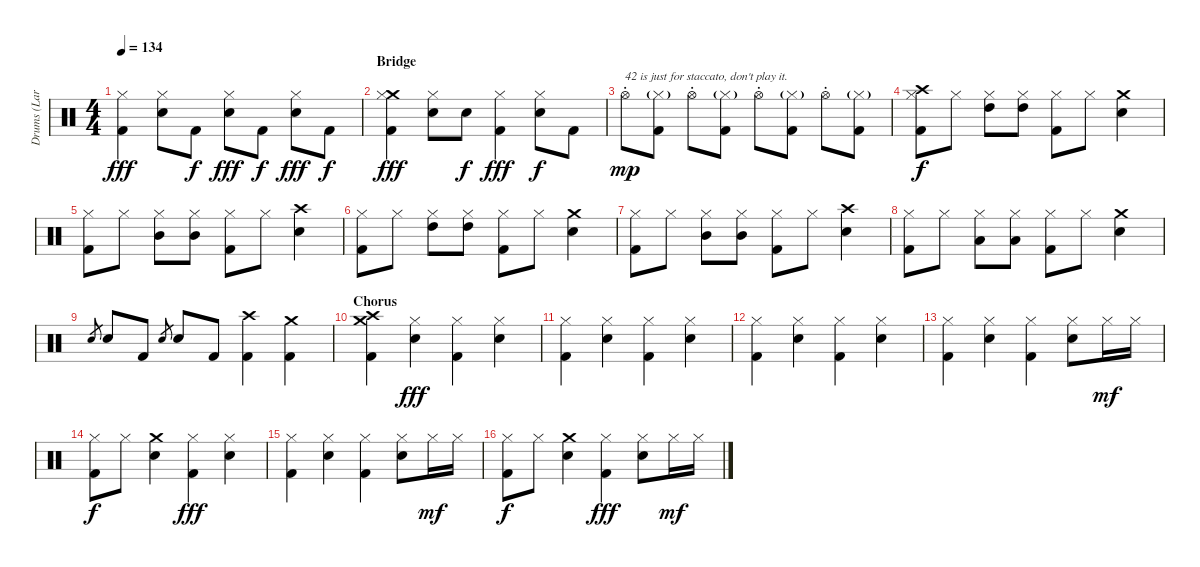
\track ("Drums (Lars)" "Drums (Lar") {instrument percussion}
\staff {score}
\articulation defaults
\ts (4 4)
\tempo 134
\clef neutral
\ks c
("Hi-Hat (closed)" "Kick (hit) 2").4{dy fff} ("Hi-Hat (closed)" "Snare (hit) 2").8 "Kick (hit) 2".8{dy f} ("Hi-Hat (closed)" "Snare (hit) 2").8{dy fff} "Kick (hit) 2".8{dy f} ("Hi-Hat (closed)" "Snare (hit) 2").8{dy fff} "Kick (hit) 2".8{dy f} |
\section ("" "Bridge")
("Crash medium (hit)" "Hi-Hat (closed)" "Kick (hit) 2").4{dy fff} ("Hi-Hat (closed)" "Snare (hit) 2").8 "Snare (hit) 2".8{dy f} ("Hi-Hat (closed)" "Kick (hit) 2").4{dy fff} ("Hi-Hat (closed)" "Snare (hit) 2").8{dy f} "Kick (hit) 2".8 |
"Hi-Hat (open)"{st}.8{txt "42 is just for staccato, don't play it." dy mp} ("Hi-Hat (closed)"{g} "Kick (hit) 2").8 "Hi-Hat (open)"{st}.8 ("Hi-Hat (closed)"{g} "Kick (hit) 2").8 "Hi-Hat (open)"{st}.8 ("Hi-Hat (closed)"{g} "Kick (hit) 2").8 "Hi-Hat (open)"{st}.8 ("Hi-Hat (closed)"{g} "Kick (hit) 2").8 |
("Crash high (hit)" "Hi-Hat (closed)" "Kick (hit) 2").8{dy f} "Hi-Hat (closed)".8 ("Hi-Hat (closed)" "High Tom (hit)").8 ("Hi-Hat (closed)" "High Tom (hit)").8 ("Hi-Hat (closed)" "Kick (hit) 2").8 "Hi-Hat (closed)".8 ("Crash medium (hit)" "Snare (hit) 2").4 |
("Hi-Hat (closed)" "Kick (hit) 2").8 "Hi-Hat (closed)".8 ("Hi-Hat (closed)" "Mid Tom (hit)").8 ("Hi-Hat (closed)" "Mid Tom (hit)").8 ("Hi-Hat (closed)" "Kick (hit) 2").8 "Hi-Hat (closed)".8 ("Crash high (hit)" "Snare (hit) 2").4 |
("Hi-Hat (closed)" "Kick (hit) 2").8 "Hi-Hat (closed)".8 ("Hi-Hat (closed)" "High Tom (hit)").8 ("Hi-Hat (closed)" "High Tom (hit)").8 ("Hi-Hat (closed)" "Kick (hit) 2").8 "Hi-Hat (closed)".8 ("Crash medium (hit)" "Snare (hit) 2").4 |
("Hi-Hat (closed)" "Kick (hit) 2").8 "Hi-Hat (closed)".8 ("Hi-Hat (closed)" "Mid Tom (hit)").8 ("Hi-Hat (closed)" "Mid Tom (hit)").8 ("Hi-Hat (closed)" "Kick (hit) 2").8 "Hi-Hat (closed)".8 ("Crash high (hit)" "Snare (hit) 2").4 |
("Hi-Hat (closed)" "Kick (hit) 2").8 "Hi-Hat (closed)".8 ("Hi-Hat (closed)" "Low Tom (hit)").8 ("Hi-Hat (closed)" "Low Tom (hit)").8 ("Hi-Hat (closed)" "Kick (hit) 2").8 "Hi-Hat (closed)".8 ("Crash medium (hit)" "Snare (hit) 2").4 |
"Snare (hit) 2".8{gr} "Snare (hit) 2".8 "Kick (hit) 2".8 "Snare (hit) 2".8{gr} "Snare (hit) 2".8 "Kick (hit) 2".8 ("Crash high (hit)" "Kick (hit) 2").4 ("Crash medium (hit)" "Kick (hit) 2").4 |
\section ("" "Chorus")
("Crash high (hit)" "Crash medium (hit)" "Kick (hit) 2").4 ("Hi-Hat (closed)" "Snare (hit) 2").4{dy fff} ("Hi-Hat (closed)" "Kick (hit) 2").4 ("Hi-Hat (closed)" "Snare (hit) 2").4 |
("Hi-Hat (closed)" "Kick (hit) 2").4 ("Hi-Hat (closed)" "Snare (hit) 2").4 ("Hi-Hat (closed)" "Kick (hit) 2").4 ("Hi-Hat (closed)" "Snare (hit) 2").4 |
("Hi-Hat (closed)" "Kick (hit) 2").4 ("Hi-Hat (closed)" "Snare (hit) 2").4 ("Hi-Hat (closed)" "Kick (hit) 2").4 ("Hi-Hat (closed)" "Snare (hit) 2").4 |
("Hi-Hat (closed)" "Kick (hit) 2").4 ("Hi-Hat (closed)" "Snare (hit) 2").4 ("Hi-Hat (closed)" "Kick (hit) 2").4 ("Hi-Hat (closed)" "Snare (hit) 2").8 "Hi-Hat (closed)".16{dy mf} "Hi-Hat (closed)".16 |
("Hi-Hat (closed)" "Kick (hit) 2").8{dy f} "Hi-Hat (closed)".8 ("Crash medium (hit)" "Snare (hit) 2").4 ("Hi-Hat (closed)" "Kick (hit) 2").4{dy fff} ("Hi-Hat (closed)" "Snare (hit) 2").4 |
("Hi-Hat (closed)" "Kick (hit) 2").4 ("Hi-Hat (closed)" "Snare (hit) 2").4 ("Hi-Hat (closed)" "Kick (hit) 2").4 ("Hi-Hat (closed)" "Snare (hit) 2").8 "Hi-Hat (closed)".16{dy mf} "Hi-Hat (closed)".16 |
("Hi-Hat (closed)" "Kick (hit) 2").8{dy f} "Hi-Hat (closed)".8 ("Crash medium (hit)" "Snare (hit) 2").4 ("Hi-Hat (closed)" "Kick (hit) 2").4{dy fff} ("Hi-Hat (closed)" "Snare (hit) 2").8 "Hi-Hat (closed)".16{dy mf} "Hi-Hat (closed)".16
